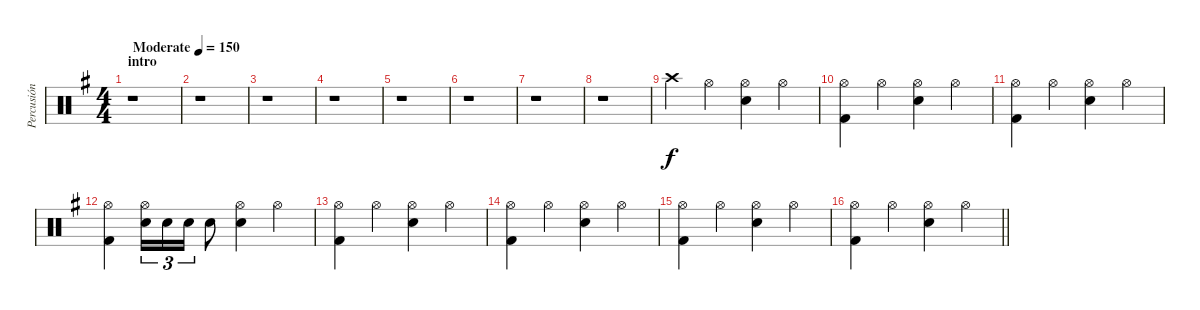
\track ("Percusión" "Percusión") {instrument percussion}
\staff {score}
\articulation defaults
\ts (4 4)
\section ("" "intro")
\tempo (150 "Moderate")
\clef neutral
\ks eminor
r.1{dy f} |
r.1 |
r.1 |
r.1 |
r.1 |
r.1 |
r.1 |
r.1 |
"Crash high (hit)".4 "Hi-Hat (open)".4 ("Hi-Hat (open)" "Electric Snare (hit)").4 "Hi-Hat (open)".4 |
("Hi-Hat (open)" "Kick (hit) 2").4 "Hi-Hat (open)".4 ("Hi-Hat (open)" "Electric Snare (hit)").4 "Hi-Hat (open)".4 |
("Hi-Hat (open)" "Kick (hit) 2").4 "Hi-Hat (open)".4 ("Hi-Hat (open)" "Electric Snare (hit)").4 "Hi-Hat (open)".4 |
("Hi-Hat (open)" "Kick (hit) 2").4 ("Hi-Hat (open)" "Electric Snare (hit)").16{tu (3 2)} "Electric Snare (hit)".16{tu (3 2)} "Electric Snare (hit)".16{tu (3 2)} "Electric Snare (hit)".8 ("Hi-Hat (open)" "Electric Snare (hit)").4 "Hi-Hat (open)".4 |
("Hi-Hat (open)" "Kick (hit) 2").4 "Hi-Hat (open)".4 ("Hi-Hat (open)" "Electric Snare (hit)").4 "Hi-Hat (open)".4 |
("Hi-Hat (open)" "Kick (hit) 2").4 "Hi-Hat (open)".4 ("Hi-Hat (open)" "Electric Snare (hit)").4 "Hi-Hat (open)".4 |
("Hi-Hat (open)" "Kick (hit) 2").4 "Hi-Hat (open)".4 ("Hi-Hat (open)" "Electric Snare (hit)").4 "Hi-Hat (open)".4 |
\barLineRight lightlight
("Hi-Hat (open)" "Kick (hit) 2").4 "Hi-Hat (open)".4 ("Hi-Hat (open)" "Electric Snare (hit)").4 "Hi-Hat (open)".4
